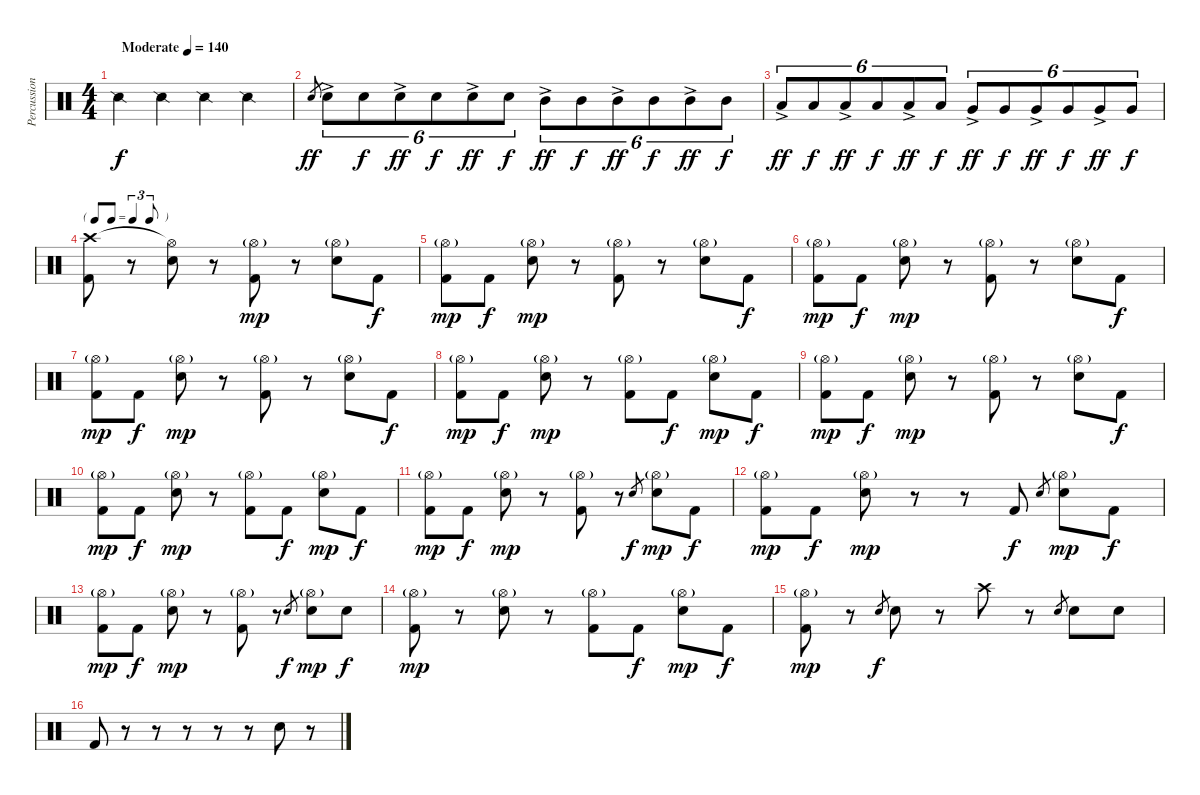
\track ("Percussion" "Percussion") {instrument percussion}
\staff {score}
\articulation defaults
\ts (4 4)
\tempo (140 "Moderate")
\clef neutral
\ks c "Snare (side stick) 2".4{dy f} "Snare (side stick) 2".4 "Snare (side stick) 2".4 "Snare (side stick) 2".4
|
"Snare (hit) 2".8{gr dy ff} "Snare (hit) 2"{ac}.8{tu (6 4)} "Snare (hit) 2".8{tu (6 4) dy f} "Snare (hit) 2"{ac}.8{tu (6 4) dy ff} "Snare (hit) 2".8{tu (6 4) dy f} "Snare (hit) 2"{ac}.8{tu (6 4) dy ff} "Snare (hit) 2".8{tu (6 4) dy f} "Mid Tom (hit)"{ac}.8{tu (6 4) dy ff} "Mid Tom (hit)".8{tu (6 4) dy f} "Mid Tom (hit)"{ac}.8{tu (6 4) dy ff} "Mid Tom (hit)".8{tu (6 4) dy f} "Mid Tom (hit)"{ac}.8{tu (6 4) dy ff} "Mid Tom (hit)".8{tu (6 4) dy f} |
"Low Tom (hit)"{ac}.8{tu (6 4) dy ff} "Low Tom (hit)".8{tu (6 4) dy f} "Low Tom (hit)"{ac}.8{tu (6 4) dy ff} "Low Tom (hit)".8{tu (6 4) dy f} "Low Tom (hit)"{ac}.8{tu (6 4) dy ff} "Low Tom (hit)".8{tu (6 4) dy f} "Very Low Tom (hit)"{ac}.8{tu (6 4) dy ff} "Very Low Tom (hit)".8{tu (6 4) dy f} "Very Low Tom (hit)"{ac}.8{tu (6 4) dy ff} "Very Low Tom (hit)".8{tu (6 4) dy f} "Very Low Tom (hit)"{ac}.8{tu (6 4) dy ff} "Very Low Tom (hit)".8{tu (6 4) dy f} |
\tf triplet8th
("Crash high (hit)" "Kick (hit) 2").8 r.8 ("Hi-Hat (open)"{t} "Snare (hit) 2").8 r.8 ("Hi-Hat (open)"{g} "Kick (hit) 2").8{dy mp} r.8 ("Hi-Hat (open)"{g} "Snare (hit) 2").8 "Kick (hit) 2".8{dy f} |
("Hi-Hat (open)"{g} "Kick (hit) 2").8{dy mp} "Kick (hit) 2".8{dy f} ("Hi-Hat (open)"{g} "Snare (hit) 2").8{dy mp} r.8 ("Hi-Hat (open)"{g} "Kick (hit) 2").8 r.8 ("Hi-Hat (open)"{g} "Snare (hit) 2").8 "Kick (hit) 2".8{dy f} |
("Hi-Hat (open)"{g} "Kick (hit) 2").8{dy mp} "Kick (hit) 2".8{dy f} ("Hi-Hat (open)"{g} "Snare (hit) 2").8{dy mp} r.8 ("Hi-Hat (open)"{g} "Kick (hit) 2").8 r.8 ("Hi-Hat (open)"{g} "Snare (hit) 2").8 "Kick (hit) 2".8{dy f} |
("Hi-Hat (open)"{g} "Kick (hit) 2").8{dy mp} "Kick (hit) 2".8{dy f} ("Hi-Hat (open)"{g} "Snare (hit) 2").8{dy mp} r.8 ("Hi-Hat (open)"{g} "Kick (hit) 2").8 r.8 ("Hi-Hat (open)"{g} "Snare (hit) 2").8 "Kick (hit) 2".8{dy f} |
("Hi-Hat (open)"{g} "Kick (hit) 2").8{dy mp} "Kick (hit) 2".8{dy f} ("Hi-Hat (open)"{g} "Snare (hit) 2").8{dy mp} r.8 ("Hi-Hat (open)"{g} "Kick (hit) 2").8 "Kick (hit) 2".8{dy f} ("Hi-Hat (open)"{g} "Snare (hit) 2").8{dy mp} "Kick (hit) 2".8{dy f} |
("Hi-Hat (open)"{g} "Kick (hit) 2").8{dy mp} "Kick (hit) 2".8{dy f} ("Hi-Hat (open)"{g} "Snare (hit) 2").8{dy mp} r.8 ("Hi-Hat (open)"{g} "Kick (hit) 2").8 r.8 ("Hi-Hat (open)"{g} "Snare (hit) 2").8 "Kick (hit) 2".8{dy f} |
("Hi-Hat (open)"{g} "Kick (hit) 2").8{dy mp} "Kick (hit) 2".8{dy f} ("Hi-Hat (open)"{g} "Snare (hit) 2").8{dy mp} r.8 ("Hi-Hat (open)"{g} "Kick (hit) 2").8 "Kick (hit) 2".8{dy f} ("Hi-Hat (open)"{g} "Snare (hit) 2").8{dy mp} "Kick (hit) 2".8{dy f} |
("Hi-Hat (open)"{g} "Kick (hit) 2").8{dy mp} "Kick (hit) 2".8{dy f} ("Hi-Hat (open)"{g} "Snare (hit) 2").8{dy mp} r.8 ("Hi-Hat (open)"{g} "Kick (hit) 2").8 r.8 "Snare (hit) 2".8{gr dy f} ("Hi-Hat (open)"{g} "Snare (hit) 2").8{dy mp} "Kick (hit) 2".8{dy f} |
("Hi-Hat (open)"{g} "Kick (hit) 2").8{dy mp} "Kick (hit) 2".8{dy f} ("Hi-Hat (open)"{g} "Snare (hit) 2").8{dy mp} r.8 r.8 "Kick (hit) 2".8{dy f} "Snare (hit) 2".8{gr} ("Hi-Hat (open)"{g} "Snare (hit) 2").8{dy mp} "Kick (hit) 2".8{dy f} |
("Hi-Hat (open)"{g} "Kick (hit) 2").8{dy mp} "Kick (hit) 2".8{dy f} ("Hi-Hat (open)"{g} "Snare (hit) 2").8{dy mp} r.8 ("Hi-Hat (open)"{g} "Kick (hit) 2").8 r.8 "Snare (hit) 2".8{gr dy f} ("Hi-Hat (open)"{g} "Snare (hit) 2").8{dy mp} "Snare (hit) 2".8{dy f} |
("Hi-Hat (open)"{g} "Kick (hit) 2").8{dy mp} r.8 ("Hi-Hat (open)"{g} "Snare (hit) 2").8 r.8 ("Hi-Hat (open)"{g} "Kick (hit) 2").8 "Kick (hit) 2".8{dy f} ("Hi-Hat (open)"{g} "Snare (hit) 2").8{dy mp} "Kick (hit) 2".8{dy f} |
("Hi-Hat (open)"{g} "Kick (hit) 2").8{dy mp} r.8 "Snare (hit) 2".8{gr dy f} "Snare (hit) 2".8 r.8 "Crash high (hit)".8 r.8 "Snare (hit) 2".8{gr} "Snare (hit) 2".8 "Snare (hit) 2".8 |
"Kick (hit) 2".8 r.8 r.8 r.8 r.8 r.8 "Snare (hit) 2".8 r.8
